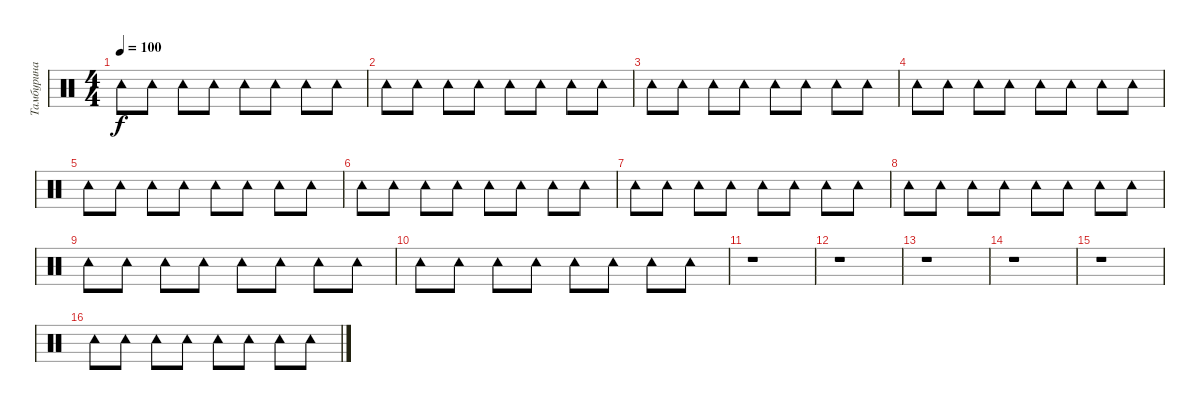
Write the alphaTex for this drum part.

\track ("Тамбурина" "Тамбурина") {instrument percussion}
\staff {score}
\articulation defaults
\ts (4 4)
\tempo 100
\clef neutral
\ks c "Tambourine (hit)".8{dy f} "Tambourine (hit)".8 "Tambourine (hit)".8 "Tambourine (hit)".8 "Tambourine (hit)".8 "Tambourine (hit)".8 "Tambourine (hit)".8 "Tambourine (hit)".8
|
"Tambourine (hit)".8 "Tambourine (hit)".8 "Tambourine (hit)".8 "Tambourine (hit)".8 "Tambourine (hit)".8 "Tambourine (hit)".8 "Tambourine (hit)".8 "Tambourine (hit)".8 |
"Tambourine (hit)".8 "Tambourine (hit)".8 "Tambourine (hit)".8 "Tambourine (hit)".8 "Tambourine (hit)".8 "Tambourine (hit)".8 "Tambourine (hit)".8 "Tambourine (hit)".8 |
"Tambourine (hit)".8 "Tambourine (hit)".8 "Tambourine (hit)".8 "Tambourine (hit)".8 "Tambourine (hit)".8 "Tambourine (hit)".8 "Tambourine (hit)".8 "Tambourine (hit)".8 |
"Tambourine (hit)".8 "Tambourine (hit)".8 "Tambourine (hit)".8 "Tambourine (hit)".8 "Tambourine (hit)".8 "Tambourine (hit)".8 "Tambourine (hit)".8 "Tambourine (hit)".8 |
"Tambourine (hit)".8 "Tambourine (hit)".8 "Tambourine (hit)".8 "Tambourine (hit)".8 "Tambourine (hit)".8 "Tambourine (hit)".8 "Tambourine (hit)".8 "Tambourine (hit)".8 |
"Tambourine (hit)".8 "Tambourine (hit)".8 "Tambourine (hit)".8 "Tambourine (hit)".8 "Tambourine (hit)".8 "Tambourine (hit)".8 "Tambourine (hit)".8 "Tambourine (hit)".8 |
"Tambourine (hit)".8 "Tambourine (hit)".8 "Tambourine (hit)".8 "Tambourine (hit)".8 "Tambourine (hit)".8 "Tambourine (hit)".8 "Tambourine (hit)".8 "Tambourine (hit)".8 |
"Tambourine (hit)".8 "Tambourine (hit)".8 "Tambourine (hit)".8 "Tambourine (hit)".8 "Tambourine (hit)".8 "Tambourine (hit)".8 "Tambourine (hit)".8 "Tambourine (hit)".8 |
"Tambourine (hit)".8 "Tambourine (hit)".8 "Tambourine (hit)".8 "Tambourine (hit)".8 "Tambourine (hit)".8 "Tambourine (hit)".8 "Tambourine (hit)".8 "Tambourine (hit)".8 |
r.1 |
r.1 |
r.1 |
r.1 |
r.1 |
"Tambourine (hit)".8 "Tambourine (hit)".8 "Tambourine (hit)".8 "Tambourine (hit)".8 "Tambourine (hit)".8 "Tambourine (hit)".8 "Tambourine (hit)".8 "Tambourine (hit)".8
